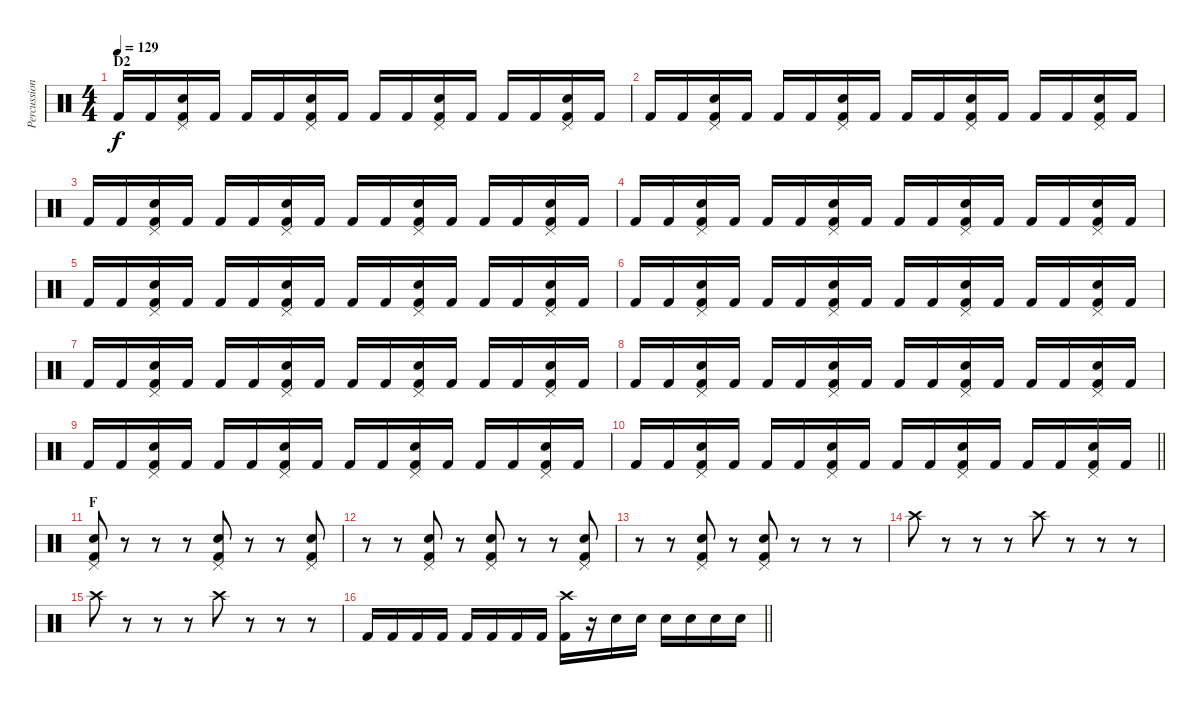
\track ("Percussion" "Percussion") {instrument percussion}
\staff {score}
\articulation defaults
\ts (4 4)
\section ("" "D2")
\tempo 129
\clef neutral
\ks c "Kick (hit) 2".16{dy f} "Kick (hit) 2".16
("Pedal Hi-Hat (hit)" "Snare (hit) 2" "Kick (hit) 2").16 "Kick (hit) 2".16 "Kick (hit) 2".16 "Kick (hit) 2".16 ("Pedal Hi-Hat (hit)" "Snare (hit) 2" "Kick (hit) 2").16 "Kick (hit) 2".16 "Kick (hit) 2".16 "Kick (hit) 2".16 ("Pedal Hi-Hat (hit)" "Snare (hit) 2" "Kick (hit) 2").16 "Kick (hit) 2".16 "Kick (hit) 2".16 "Kick (hit) 2".16 ("Pedal Hi-Hat (hit)" "Snare (hit) 2" "Kick (hit) 2").16 "Kick (hit) 2".16 |
"Kick (hit) 2".16 "Kick (hit) 2".16 ("Pedal Hi-Hat (hit)" "Snare (hit) 2" "Kick (hit) 2").16 "Kick (hit) 2".16 "Kick (hit) 2".16 "Kick (hit) 2".16 ("Pedal Hi-Hat (hit)" "Snare (hit) 2" "Kick (hit) 2").16 "Kick (hit) 2".16 "Kick (hit) 2".16 "Kick (hit) 2".16 ("Pedal Hi-Hat (hit)" "Snare (hit) 2" "Kick (hit) 2").16 "Kick (hit) 2".16 "Kick (hit) 2".16 "Kick (hit) 2".16 ("Pedal Hi-Hat (hit)" "Snare (hit) 2" "Kick (hit) 2").16 "Kick (hit) 2".16 |
"Kick (hit) 2".16 "Kick (hit) 2".16 ("Pedal Hi-Hat (hit)" "Snare (hit) 2" "Kick (hit) 2").16 "Kick (hit) 2".16 "Kick (hit) 2".16 "Kick (hit) 2".16 ("Pedal Hi-Hat (hit)" "Snare (hit) 2" "Kick (hit) 2").16 "Kick (hit) 2".16 "Kick (hit) 2".16 "Kick (hit) 2".16 ("Pedal Hi-Hat (hit)" "Snare (hit) 2" "Kick (hit) 2").16 "Kick (hit) 2".16 "Kick (hit) 2".16 "Kick (hit) 2".16 ("Pedal Hi-Hat (hit)" "Snare (hit) 2" "Kick (hit) 2").16 "Kick (hit) 2".16 |
"Kick (hit) 2".16 "Kick (hit) 2".16 ("Pedal Hi-Hat (hit)" "Snare (hit) 2" "Kick (hit) 2").16 "Kick (hit) 2".16 "Kick (hit) 2".16 "Kick (hit) 2".16 ("Pedal Hi-Hat (hit)" "Snare (hit) 2" "Kick (hit) 2").16 "Kick (hit) 2".16 "Kick (hit) 2".16 "Kick (hit) 2".16 ("Pedal Hi-Hat (hit)" "Snare (hit) 2" "Kick (hit) 2").16 "Kick (hit) 2".16 "Kick (hit) 2".16 "Kick (hit) 2".16 ("Pedal Hi-Hat (hit)" "Snare (hit) 2" "Kick (hit) 2").16 "Kick (hit) 2".16 |
"Kick (hit) 2".16 "Kick (hit) 2".16 ("Pedal Hi-Hat (hit)" "Snare (hit) 2" "Kick (hit) 2").16 "Kick (hit) 2".16 "Kick (hit) 2".16 "Kick (hit) 2".16 ("Pedal Hi-Hat (hit)" "Snare (hit) 2" "Kick (hit) 2").16 "Kick (hit) 2".16 "Kick (hit) 2".16 "Kick (hit) 2".16 ("Pedal Hi-Hat (hit)" "Snare (hit) 2" "Kick (hit) 2").16 "Kick (hit) 2".16 "Kick (hit) 2".16 "Kick (hit) 2".16 ("Pedal Hi-Hat (hit)" "Snare (hit) 2" "Kick (hit) 2").16 "Kick (hit) 2".16 |
"Kick (hit) 2".16 "Kick (hit) 2".16 ("Pedal Hi-Hat (hit)" "Snare (hit) 2" "Kick (hit) 2").16 "Kick (hit) 2".16 "Kick (hit) 2".16 "Kick (hit) 2".16 ("Pedal Hi-Hat (hit)" "Snare (hit) 2" "Kick (hit) 2").16 "Kick (hit) 2".16 "Kick (hit) 2".16 "Kick (hit) 2".16 ("Pedal Hi-Hat (hit)" "Snare (hit) 2" "Kick (hit) 2").16 "Kick (hit) 2".16 "Kick (hit) 2".16 "Kick (hit) 2".16 ("Pedal Hi-Hat (hit)" "Snare (hit) 2" "Kick (hit) 2").16 "Kick (hit) 2".16 |
"Kick (hit) 2".16 "Kick (hit) 2".16 ("Pedal Hi-Hat (hit)" "Snare (hit) 2" "Kick (hit) 2").16 "Kick (hit) 2".16 "Kick (hit) 2".16 "Kick (hit) 2".16 ("Pedal Hi-Hat (hit)" "Snare (hit) 2" "Kick (hit) 2").16 "Kick (hit) 2".16 "Kick (hit) 2".16 "Kick (hit) 2".16 ("Pedal Hi-Hat (hit)" "Snare (hit) 2" "Kick (hit) 2").16 "Kick (hit) 2".16 "Kick (hit) 2".16 "Kick (hit) 2".16 ("Pedal Hi-Hat (hit)" "Snare (hit) 2" "Kick (hit) 2").16 "Kick (hit) 2".16 |
"Kick (hit) 2".16 "Kick (hit) 2".16 ("Pedal Hi-Hat (hit)" "Snare (hit) 2" "Kick (hit) 2").16 "Kick (hit) 2".16 "Kick (hit) 2".16 "Kick (hit) 2".16 ("Pedal Hi-Hat (hit)" "Snare (hit) 2" "Kick (hit) 2").16 "Kick (hit) 2".16 "Kick (hit) 2".16 "Kick (hit) 2".16 ("Pedal Hi-Hat (hit)" "Snare (hit) 2" "Kick (hit) 2").16 "Kick (hit) 2".16 "Kick (hit) 2".16 "Kick (hit) 2".16 ("Pedal Hi-Hat (hit)" "Snare (hit) 2" "Kick (hit) 2").16 "Kick (hit) 2".16 |
"Kick (hit) 2".16 "Kick (hit) 2".16 ("Pedal Hi-Hat (hit)" "Snare (hit) 2" "Kick (hit) 2").16 "Kick (hit) 2".16 "Kick (hit) 2".16 "Kick (hit) 2".16 ("Pedal Hi-Hat (hit)" "Snare (hit) 2" "Kick (hit) 2").16 "Kick (hit) 2".16 "Kick (hit) 2".16 "Kick (hit) 2".16 ("Pedal Hi-Hat (hit)" "Snare (hit) 2" "Kick (hit) 2").16 "Kick (hit) 2".16 "Kick (hit) 2".16 "Kick (hit) 2".16 ("Pedal Hi-Hat (hit)" "Snare (hit) 2" "Kick (hit) 2").16 "Kick (hit) 2".16 |
\barLineRight lightlight "Kick (hit) 2".16 "Kick (hit) 2".16
("Pedal Hi-Hat (hit)" "Snare (hit) 2" "Kick (hit) 2").16 "Kick (hit) 2".16 "Kick (hit) 2".16 "Kick (hit) 2".16 ("Pedal Hi-Hat (hit)" "Snare (hit) 2" "Kick (hit) 2").16 "Kick (hit) 2".16 "Kick (hit) 2".16 "Kick (hit) 2".16 ("Pedal Hi-Hat (hit)" "Snare (hit) 2" "Kick (hit) 2").16 "Kick (hit) 2".16 "Kick (hit) 2".16 "Kick (hit) 2".16 ("Pedal Hi-Hat (hit)" "Snare (hit) 2" "Kick (hit) 2").16 "Kick (hit) 2".16 |
\section ("" "F")
("Pedal Hi-Hat (hit)" "Snare (hit) 2" "Kick (hit) 2").8 r.8 r.8 r.8 ("Pedal Hi-Hat (hit)" "Snare (hit) 2" "Kick (hit) 2").8 r.8 r.8 ("Pedal Hi-Hat (hit)" "Snare (hit) 2" "Kick (hit) 2").8 |
r.8 r.8 ("Pedal Hi-Hat (hit)" "Snare (hit) 2" "Kick (hit) 2").8 r.8 ("Pedal Hi-Hat (hit)" "Snare (hit) 2" "Kick (hit) 2").8 r.8 r.8 ("Pedal Hi-Hat (hit)" "Snare (hit) 2" "Kick (hit) 2").8 |
r.8 r.8 ("Pedal Hi-Hat (hit)" "Snare (hit) 2" "Kick (hit) 2").8 r.8 ("Pedal Hi-Hat (hit)" "Snare (hit) 2" "Kick (hit) 2").8 r.8 r.8 r.8 |
"Crash high (hit)".8 r.8 r.8 r.8 "Crash high (hit)".8 r.8 r.8 r.8 |
"Crash high (hit)".8 r.8 r.8 r.8 "Crash high (hit)".8 r.8 r.8 r.8 |
\barLineRight lightlight "Kick (hit) 2".16 "Kick (hit) 2".16 "Kick (hit) 2".16 "Kick (hit) 2".16 "Kick (hit) 2".16 "Kick (hit) 2".16 "Kick (hit) 2".16 "Kick (hit) 2".16
("Crash high (hit)" "Kick (hit) 2").16 r.16 "Snare (hit) 2".16 "Snare (hit) 2".16 "Snare (hit) 2".16 "Snare (hit) 2".16 "Snare (hit) 2".16 "Snare (hit) 2".16
